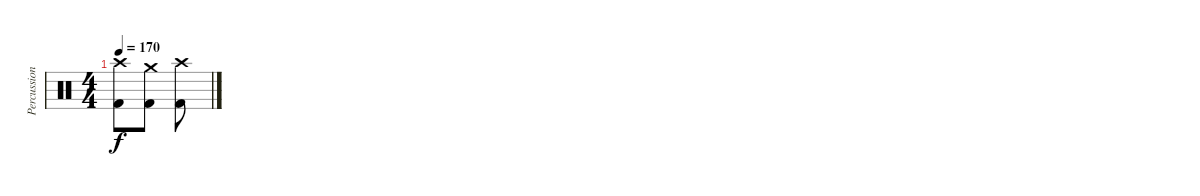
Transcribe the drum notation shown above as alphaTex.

\track ("Percussion" "Percussion") {instrument percussion}
\staff {score}
\articulation defaults
\ts (4 4)
\tempo 170
\clef neutral
\ks c
("Crash high (hit)" "Kick (hit) 2").8{dy f} ("Crash medium (hit)" "Kick (hit) 2").8 ("Crash high (hit)" "Kick (hit) 2").8
